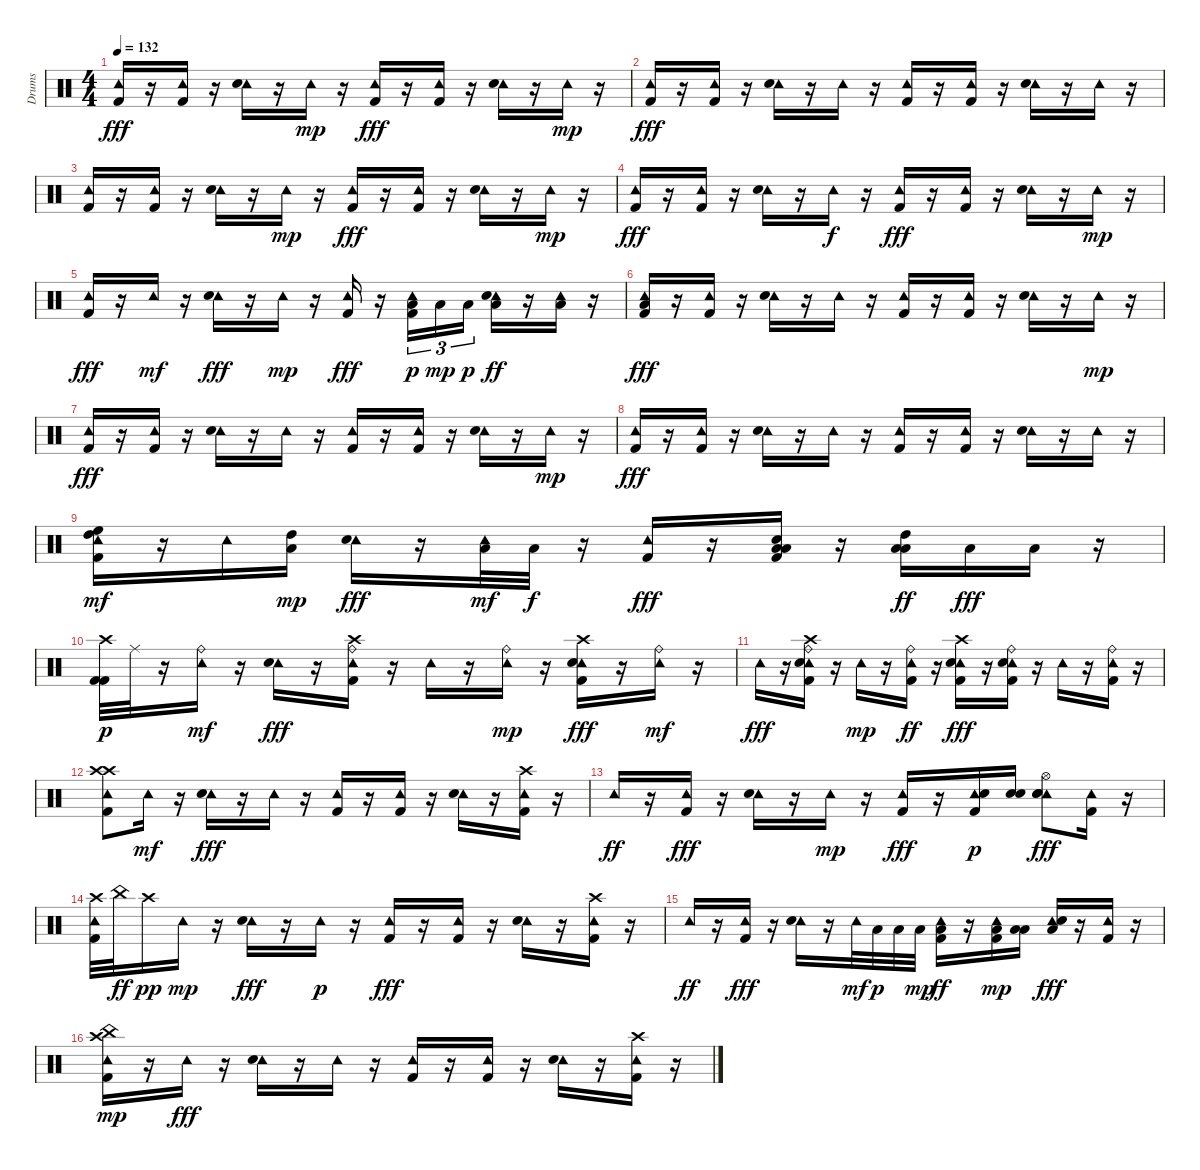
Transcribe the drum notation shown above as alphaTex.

\track ("Drums" "Drums") {instrument percussion}
\staff {score}
\articulation defaults
\ts (4 4)
\tempo 132
\clef neutral
\ks c
("Tambourine (hit)" "Kick (hit) 2").16{dy fff} r.16 ("Tambourine (hit)" "Kick (hit) 2").16 r.16 ("Tambourine (hit)" "Snare (hit) 2").16 r.16 "Tambourine (hit)".16{dy mp} r.16 ("Tambourine (hit)" "Kick (hit) 2").16{dy fff} r.16 ("Tambourine (hit)" "Kick (hit) 2").16 r.16 ("Tambourine (hit)" "Snare (hit) 2").16 r.16 "Tambourine (hit)".16{dy mp} r.16 |
("Tambourine (hit)" "Kick (hit) 2").16{dy fff} r.16 ("Tambourine (hit)" "Kick (hit) 2").16 r.16 ("Tambourine (hit)" "Snare (hit) 2").16 r.16 "Tambourine (hit)".16 r.16 ("Tambourine (hit)" "Kick (hit) 2").16 r.16 ("Tambourine (hit)" "Kick (hit) 2").16 r.16 ("Tambourine (hit)" "Snare (hit) 2").16 r.16 "Tambourine (hit)".16 r.16 |
("Tambourine (hit)" "Kick (hit) 2").16 r.16 ("Tambourine (hit)" "Kick (hit) 2").16 r.16 ("Tambourine (hit)" "Snare (hit) 2").16 r.16 "Tambourine (hit)".16{dy mp} r.16 ("Tambourine (hit)" "Kick (hit) 2").16{dy fff} r.16 ("Tambourine (hit)" "Kick (hit) 2").16 r.16 ("Tambourine (hit)" "Snare (hit) 2").16 r.16 "Tambourine (hit)".16{dy mp} r.16 |
("Tambourine (hit)" "Kick (hit) 2").16{dy fff} r.16 ("Tambourine (hit)" "Kick (hit) 2").16 r.16 ("Tambourine (hit)" "Snare (hit) 2").16 r.16 "Tambourine (hit)".16{dy f} r.16 ("Tambourine (hit)" "Kick (hit) 2").16{dy fff} r.16 ("Tambourine (hit)" "Kick (hit) 2").16 r.16 ("Tambourine (hit)" "Snare (hit) 2").16 r.16 "Tambourine (hit)".16{dy mp} r.16 |
("Tambourine (hit)" "Kick (hit) 2").16{dy fff} r.16 "Tambourine (hit)".16{dy mf} r.16 ("Tambourine (hit)" "Snare (hit) 2").16{dy fff} r.16 "Tambourine (hit)".16{dy mp} r.16 ("Tambourine (hit)" "Kick (hit) 2").16{dy fff} r.16 ("Tambourine (hit)" "Kick (hit) 2" "Low Tom (hit)").16{tu (3 2) dy p} "Low Tom (hit)".16{tu (3 2) dy mp} "Low Tom (hit)".16{tu (3 2) dy p} ("Tambourine (hit)" "Snare (hit) 2" "Low Tom (hit)").16{dy ff} r.16 ("Tambourine (hit)" "Low Floor Tom (hit)").16 r.16 |
("Tambourine (hit)" "Kick (hit) 2" "Low Floor Tom (hit)").16{dy fff} r.16 ("Tambourine (hit)" "Kick (hit) 2").16 r.16 ("Tambourine (hit)" "Snare (hit) 2").16 r.16 "Tambourine (hit)".16 r.16 ("Tambourine (hit)" "Kick (hit) 2").16 r.16 ("Tambourine (hit)" "Kick (hit) 2").16 r.16 ("Tambourine (hit)" "Snare (hit) 2").16 r.16 "Tambourine (hit)".16{dy mp} r.16 |
("Tambourine (hit)" "Kick (hit) 2").16{dy fff} r.16 ("Tambourine (hit)" "Kick (hit) 2").16 r.16 ("Tambourine (hit)" "Snare (hit) 2").16 r.16 "Tambourine (hit)".16 r.16 ("Tambourine (hit)" "Kick (hit) 2").16 r.16 ("Tambourine (hit)" "Kick (hit) 2").16 r.16 ("Tambourine (hit)" "Snare (hit) 2").16 r.16 "Tambourine (hit)".16{dy mp} r.16 |
("Tambourine (hit)" "Kick (hit) 2").16{dy fff} r.16 ("Tambourine (hit)" "Kick (hit) 2").16 r.16 ("Tambourine (hit)" "Snare (hit) 2").16 r.16 "Tambourine (hit)".16 r.16 ("Tambourine (hit)" "Kick (hit) 2").16 r.16 ("Tambourine (hit)" "Kick (hit) 2").16 r.16 ("Tambourine (hit)" "Snare (hit) 2").16 r.16 "Tambourine (hit)".16 r.16 |
("Tambourine (hit)" "Kick (hit) 2" "High Tom (hit)" "High Floor Tom (hit)").16{dy mf} r.16 "Tambourine (hit)".16 ("High Tom (hit)" "Low Tom (hit)").16{dy mp} ("Tambourine (hit)" "Snare (hit) 2").16{dy fff} r.16 ("Tambourine (hit)" "Low Floor Tom (hit)").32{dy mf} "Low Tom (hit)".32{dy f} r.16 ("Tambourine (hit)" "Kick (hit) 2").16{dy fff} r.16 ("Snare (hit) 2" "Kick (hit) 2" "Low Tom (hit)" "Low Floor Tom (hit)").16 r.16 ("High Tom (hit)" "Low Tom (hit)" "Low Floor Tom (hit)").16{dy ff} "Low Tom (hit)".16{dy fff} "Low Floor Tom (hit)".16 r.16 |
("Crash high (hit)" "Kick (hit) 2" "Kick (hit) 2").32{dy p} "Ride (middle)".32 r.16 ("Tambourine (hit)" "Ride (bell)").16{dy mf} r.16 ("Tambourine (hit)" "Snare (hit) 2").16{dy fff} r.16 ("Tambourine (hit)" "Crash high (hit)" "Kick (hit) 2" "Ride (bell)").16 r.16 "Tambourine (hit)".16 r.16 ("Tambourine (hit)" "Ride (bell)").16{dy mp} r.16 ("Tambourine (hit)" "Crash high (hit)" "Snare (hit) 2" "Kick (hit) 2").16{dy fff} r.16 ("Tambourine (hit)" "Ride (bell)").16{dy mf} r.16 |
"Tambourine (hit)".16{dy fff} r.16 ("Tambourine (hit)" "Crash high (hit)" "Snare (hit) 2" "Kick (hit) 2" "Ride (bell)").16 r.16 "Tambourine (hit)".16{dy mp} r.16 ("Tambourine (hit)" "Kick (hit) 2" "Ride (bell)").16{dy ff} r.16 ("Tambourine (hit)" "Crash high (hit)" "Snare (hit) 2" "Kick (hit) 2").16{dy fff} r.16 ("Tambourine (hit)" "Snare (hit) 2" "Kick (hit) 2" "Ride (bell)").16 r.16 "Tambourine (hit)".16 r.16 ("Tambourine (hit)" "Kick (hit) 2" "Ride (bell)").16 r.16 |
("Tambourine (hit)" "Crash high (hit)" "Kick (hit) 2" "Crash high (hit)").8 "Tambourine (hit)".16{dy mf} r.16 ("Tambourine (hit)" "Snare (hit) 2").16{dy fff} r.16 "Tambourine (hit)".16 r.16 ("Tambourine (hit)" "Kick (hit) 2").16 r.16 ("Tambourine (hit)" "Kick (hit) 2").16 r.16 ("Tambourine (hit)" "Snare (hit) 2").16 r.16 ("Tambourine (hit)" "Crash high (hit)" "Kick (hit) 2").16 r.16 |
"Tambourine (hit)".16{dy ff} r.16 ("Tambourine (hit)" "Kick (hit) 2").16{dy fff} r.16 ("Tambourine (hit)" "Snare (hit) 2").16 r.16 "Tambourine (hit)".16{dy mp} r.16 ("Tambourine (hit)" "Kick (hit) 2").16{dy fff} r.16 ("Tambourine (hit)" "Kick (hit) 2" "Snare (hit) 2").16{dy p} ("Snare (hit) 2" "Snare (hit) 2").16 ("Tambourine (hit)" "Snare (hit) 2" "Hi-Hat (open)" "Snare (hit) 2").8{dy fff} ("Tambourine (hit)" "Kick (hit) 2").16 r.16 |
("Tambourine (hit)" "Crash high (hit)" "Kick (hit) 2").32 "China (hit)".32{dy ff} "Crash high (hit)".16{dy pp} "Tambourine (hit)".16{dy mp} r.16 ("Tambourine (hit)" "Snare (hit) 2").16{dy fff} r.16 "Tambourine (hit)".16{dy p} r.16 ("Tambourine (hit)" "Kick (hit) 2").16{dy fff} r.16 ("Tambourine (hit)" "Kick (hit) 2").16 r.16 ("Tambourine (hit)" "Snare (hit) 2").16 r.16 ("Tambourine (hit)" "Crash high (hit)" "Kick (hit) 2").16 r.16 |
"Tambourine (hit)".16{dy ff} r.16 ("Tambourine (hit)" "Kick (hit) 2").16{dy fff} r.16 ("Tambourine (hit)" "Snare (hit) 2").16 r.16 "Tambourine (hit)".32{dy mf} "Low Tom (hit)".32{dy p} "Low Tom (hit)".32 "Low Tom (hit)".32{dy mp} ("Tambourine (hit)" "Kick (hit) 2" "Low Tom (hit)").16{dy ff} r.16 ("Tambourine (hit)" "Kick (hit) 2" "Low Floor Tom (hit)").16{dy mp} ("Low Floor Tom (hit)" "Low Floor Tom (hit)").16 ("Low Floor Tom (hit)" "Tambourine (hit)" "Snare (hit) 2").16{dy fff} r.16 ("Tambourine (hit)" "Kick (hit) 2").16 r.16 |
("Tambourine (hit)" "Crash high (hit)" "Kick (hit) 2" "China (hit)").16{dy mp} r.16 "Tambourine (hit)".16{dy fff} r.16 ("Tambourine (hit)" "Snare (hit) 2").16 r.16 "Tambourine (hit)".16 r.16 ("Tambourine (hit)" "Kick (hit) 2").16 r.16 ("Tambourine (hit)" "Kick (hit) 2").16 r.16 ("Tambourine (hit)" "Snare (hit) 2").16 r.16 ("Tambourine (hit)" "Crash high (hit)" "Kick (hit) 2").16 r.16
